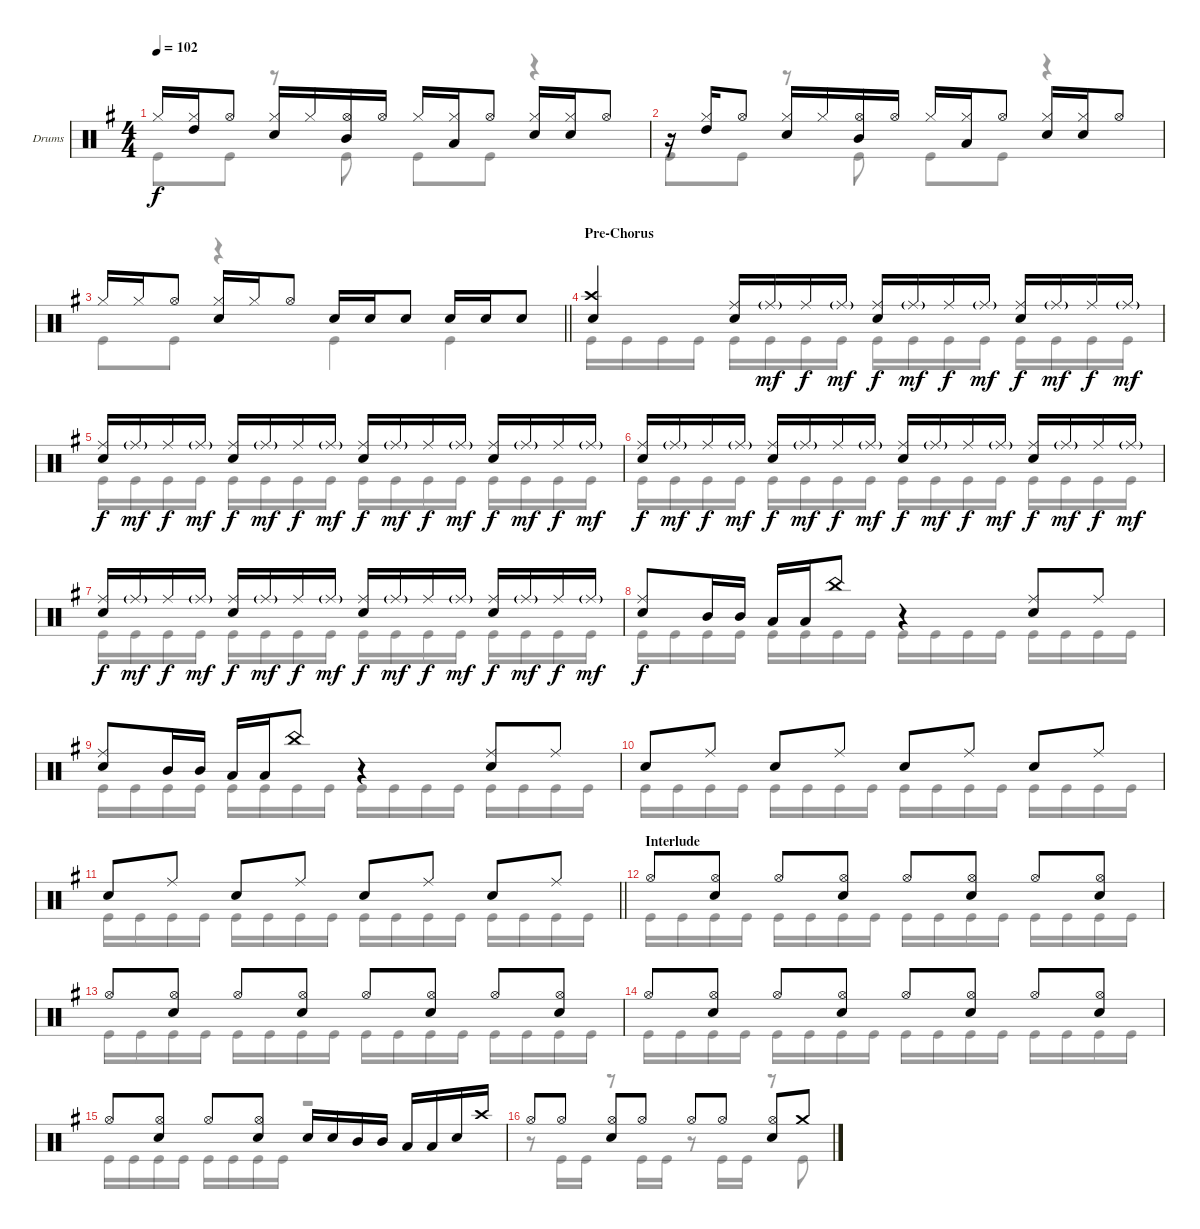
\bracketExtendMode groupsimilarinstruments
\firstSystemTrackNameOrientation horizontal
\otherSystemsTrackNameOrientation horizontal
\track ("Drumkit" "Drums") {instrument percussion}
\staff {score}
\articulation defaults
\voice
\ts (4 4)
\tempo 102
\clef neutral
\ks g "Hi-Hat (closed)".16{dy f}
("Hi-Hat (closed)" "High Tom (hit)").16 "Hi-Hat (open)".8 ("Hi-Hat (closed)" "Snare (hit) 2").16 "Hi-Hat (closed)".16 ("Hi-Hat (open)" "Mid Tom (hit)").16 "Hi-Hat (open)".16 "Hi-Hat (closed)".16 ("Hi-Hat (closed)" "Low Tom (hit)").16 "Hi-Hat (open)".8 ("Hi-Hat (closed)" "Snare (hit) 2").16 ("Hi-Hat (closed)" "Snare (hit) 2").16 "Hi-Hat (open)".8 |
r.16 ("Hi-Hat (closed)" "High Tom (hit)").16 "Hi-Hat (open)".8 ("Hi-Hat (closed)" "Snare (hit) 2").16 "Hi-Hat (closed)".16 ("Hi-Hat (open)" "Mid Tom (hit)").16 "Hi-Hat (open)".16 "Hi-Hat (closed)".16 ("Hi-Hat (closed)" "Low Tom (hit)").16 "Hi-Hat (open)".8 ("Hi-Hat (closed)" "Snare (hit) 2").16 ("Hi-Hat (closed)" "Snare (hit) 2").16 "Hi-Hat (open)".8 |
\barLineRight lightlight "Hi-Hat (closed)".16 "Hi-Hat (closed)".16 "Hi-Hat (open)".8
("Hi-Hat (closed)" "Snare (hit) 2").16 "Hi-Hat (closed)".16 "Hi-Hat (open)".8 "Snare (hit) 2".16 "Snare (hit) 2".16 "Snare (hit) 2".8 "Snare (hit) 2".16 "Snare (hit) 2".16 "Snare (hit) 2".8 |
\section ("" "Pre-Chorus")
("Crash high (hit)" "Snare (hit) 2").4 ("Ride (middle)" "Snare (hit) 2").16 "Ride (middle)"{g}.16{dy mf} "Ride (middle)".16{dy f} "Ride (middle)"{g}.16{dy mf} ("Ride (middle)" "Snare (hit) 2").16{dy f} "Ride (middle)"{g}.16{dy mf} "Ride (middle)".16{dy f} "Ride (middle)"{g}.16{dy mf} ("Ride (middle)" "Snare (hit) 2").16{dy f} "Ride (middle)"{g}.16{dy mf} "Ride (middle)".16{dy f} "Ride (middle)"{g}.16{dy mf} |
("Ride (middle)" "Snare (hit) 2").16{dy f} "Ride (middle)"{g}.16{dy mf} "Ride (middle)".16{dy f} "Ride (middle)"{g}.16{dy mf} ("Ride (middle)" "Snare (hit) 2").16{dy f} "Ride (middle)"{g}.16{dy mf} "Ride (middle)".16{dy f} "Ride (middle)"{g}.16{dy mf} ("Ride (middle)" "Snare (hit) 2").16{dy f} "Ride (middle)"{g}.16{dy mf} "Ride (middle)".16{dy f} "Ride (middle)"{g}.16{dy mf} ("Ride (middle)" "Snare (hit) 2").16{dy f} "Ride (middle)"{g}.16{dy mf} "Ride (middle)".16{dy f} "Ride (middle)"{g}.16{dy mf} |
("Ride (middle)" "Snare (hit) 2").16{dy f} "Ride (middle)"{g}.16{dy mf} "Ride (middle)".16{dy f} "Ride (middle)"{g}.16{dy mf} ("Ride (middle)" "Snare (hit) 2").16{dy f} "Ride (middle)"{g}.16{dy mf} "Ride (middle)".16{dy f} "Ride (middle)"{g}.16{dy mf} ("Ride (middle)" "Snare (hit) 2").16{dy f} "Ride (middle)"{g}.16{dy mf} "Ride (middle)".16{dy f} "Ride (middle)"{g}.16{dy mf} ("Ride (middle)" "Snare (hit) 2").16{dy f} "Ride (middle)"{g}.16{dy mf} "Ride (middle)".16{dy f} "Ride (middle)"{g}.16{dy mf} |
("Ride (middle)" "Snare (hit) 2").16{dy f} "Ride (middle)"{g}.16{dy mf} "Ride (middle)".16{dy f} "Ride (middle)"{g}.16{dy mf} ("Ride (middle)" "Snare (hit) 2").16{dy f} "Ride (middle)"{g}.16{dy mf} "Ride (middle)".16{dy f} "Ride (middle)"{g}.16{dy mf} ("Ride (middle)" "Snare (hit) 2").16{dy f} "Ride (middle)"{g}.16{dy mf} "Ride (middle)".16{dy f} "Ride (middle)"{g}.16{dy mf} ("Ride (middle)" "Snare (hit) 2").16{dy f} "Ride (middle)"{g}.16{dy mf} "Ride (middle)".16{dy f} "Ride (middle)"{g}.16{dy mf} |
("Ride (middle)" "Snare (hit) 2").8{dy f} "Mid Tom (hit)".16 "Mid Tom (hit)".16 "Low Tom (hit)".16 "Low Tom (hit)".16 "China (hit)".8 r.4 ("Ride (middle)" "Snare (hit) 2").8 "Ride (middle)".8 |
("Ride (middle)" "Snare (hit) 2").8 "Mid Tom (hit)".16 "Mid Tom (hit)".16 "Low Tom (hit)".16 "Low Tom (hit)".16 "China (hit)".8 r.4 ("Ride (middle)" "Snare (hit) 2").8 "Ride (middle)".8 |
"Snare (hit) 2".8 "Ride (middle)".8 "Snare (hit) 2".8 "Ride (middle)".8 "Snare (hit) 2".8 "Ride (middle)".8 "Snare (hit) 2".8 "Ride (middle)".8 |
\barLineRight lightlight "Snare (hit) 2".8 "Ride (middle)".8 "Snare (hit) 2".8 "Ride (middle)".8 "Snare (hit) 2".8 "Ride (middle)".8 "Snare (hit) 2".8 "Ride (middle)".8
|
\section ("" "Interlude")
"Hi-Hat (open)".8 ("Hi-Hat (open)" "Snare (hit) 2").8 "Hi-Hat (open)".8 ("Hi-Hat (open)" "Snare (hit) 2").8 "Hi-Hat (open)".8 ("Hi-Hat (open)" "Snare (hit) 2").8 "Hi-Hat (open)".8 ("Hi-Hat (open)" "Snare (hit) 2").8 |
"Hi-Hat (open)".8 ("Hi-Hat (open)" "Snare (hit) 2").8 "Hi-Hat (open)".8 ("Hi-Hat (open)" "Snare (hit) 2").8 "Hi-Hat (open)".8 ("Hi-Hat (open)" "Snare (hit) 2").8 "Hi-Hat (open)".8 ("Hi-Hat (open)" "Snare (hit) 2").8 |
"Hi-Hat (open)".8 ("Hi-Hat (open)" "Snare (hit) 2").8 "Hi-Hat (open)".8 ("Hi-Hat (open)" "Snare (hit) 2").8 "Hi-Hat (open)".8 ("Hi-Hat (open)" "Snare (hit) 2").8 "Hi-Hat (open)".8 ("Hi-Hat (open)" "Snare (hit) 2").8 |
"Hi-Hat (open)".8 ("Hi-Hat (open)" "Snare (hit) 2").8 "Hi-Hat (open)".8 ("Hi-Hat (open)" "Snare (hit) 2").8 "Snare (hit) 2".16 "Snare (hit) 2".16 "Mid Tom (hit)".16 "Mid Tom (hit)".16 "Low Tom (hit)".16 "Low Tom (hit)".16 "Snare (hit) 2".16 "Crash high (hit)".16 |
"Hi-Hat (open)".8 "Hi-Hat (open)".8 ("Hi-Hat (open)" "Snare (hit) 2").8 "Hi-Hat (open)".8 "Hi-Hat (open)".8 "Hi-Hat (open)".8 ("Hi-Hat (open)" "Snare (hit) 2").8 "Crash medium (hit)".8
\voice
\clef neutral
\ottava regular
\simile none
\ks g "Kick (hit)".8{dy f} "Kick (hit)".8
r.8 "Kick (hit)".8 "Kick (hit)".8 "Kick (hit)".8 r.4 |
"Kick (hit)".8 "Kick (hit)".8 r.8 "Kick (hit)".8 "Kick (hit)".8 "Kick (hit)".8 r.4 |
\barLineRight lightlight "Kick (hit)".8 "Kick (hit)".8
r.4 "Kick (hit)".4 "Kick (hit)".4 |
"Kick (hit)".16 "Kick (hit)".16 "Kick (hit)".16 "Kick (hit)".16 "Kick (hit)".16 "Kick (hit)".16 "Kick (hit)".16 "Kick (hit)".16 "Kick (hit)".16 "Kick (hit)".16 "Kick (hit)".16 "Kick (hit)".16 "Kick (hit)".16 "Kick (hit)".16 "Kick (hit)".16 "Kick (hit)".16 |
"Kick (hit)".16 "Kick (hit)".16 "Kick (hit)".16 "Kick (hit)".16 "Kick (hit)".16 "Kick (hit)".16 "Kick (hit)".16 "Kick (hit)".16 "Kick (hit)".16 "Kick (hit)".16 "Kick (hit)".16 "Kick (hit)".16 "Kick (hit)".16 "Kick (hit)".16 "Kick (hit)".16 "Kick (hit)".16 |
"Kick (hit)".16 "Kick (hit)".16 "Kick (hit)".16 "Kick (hit)".16 "Kick (hit)".16 "Kick (hit)".16 "Kick (hit)".16 "Kick (hit)".16 "Kick (hit)".16 "Kick (hit)".16 "Kick (hit)".16 "Kick (hit)".16 "Kick (hit)".16 "Kick (hit)".16 "Kick (hit)".16 "Kick (hit)".16 |
"Kick (hit)".16 "Kick (hit)".16 "Kick (hit)".16 "Kick (hit)".16 "Kick (hit)".16 "Kick (hit)".16 "Kick (hit)".16 "Kick (hit)".16 "Kick (hit)".16 "Kick (hit)".16 "Kick (hit)".16 "Kick (hit)".16 "Kick (hit)".16 "Kick (hit)".16 "Kick (hit)".16 "Kick (hit)".16 |
"Kick (hit)".16 "Kick (hit)".16 "Kick (hit)".16 "Kick (hit)".16 "Kick (hit)".16 "Kick (hit)".16 "Kick (hit)".16 "Kick (hit)".16 "Kick (hit)".16 "Kick (hit)".16 "Kick (hit)".16 "Kick (hit)".16 "Kick (hit)".16 "Kick (hit)".16 "Kick (hit)".16 "Kick (hit)".16 |
"Kick (hit)".16 "Kick (hit)".16 "Kick (hit)".16 "Kick (hit)".16 "Kick (hit)".16 "Kick (hit)".16 "Kick (hit)".16 "Kick (hit)".16 "Kick (hit)".16 "Kick (hit)".16 "Kick (hit)".16 "Kick (hit)".16 "Kick (hit)".16 "Kick (hit)".16 "Kick (hit)".16 "Kick (hit)".16 |
"Kick (hit)".16 "Kick (hit)".16 "Kick (hit)".16 "Kick (hit)".16 "Kick (hit)".16 "Kick (hit)".16 "Kick (hit)".16 "Kick (hit)".16 "Kick (hit)".16 "Kick (hit)".16 "Kick (hit)".16 "Kick (hit)".16 "Kick (hit)".16 "Kick (hit)".16 "Kick (hit)".16 "Kick (hit)".16 |
\barLineRight lightlight "Kick (hit)".16 "Kick (hit)".16 "Kick (hit)".16 "Kick (hit)".16 "Kick (hit)".16 "Kick (hit)".16 "Kick (hit)".16 "Kick (hit)".16 "Kick (hit)".16 "Kick (hit)".16 "Kick (hit)".16 "Kick (hit)".16 "Kick (hit)".16 "Kick (hit)".16 "Kick (hit)".16 "Kick (hit)".16
|
"Kick (hit)".16 "Kick (hit)".16 "Kick (hit)".16 "Kick (hit)".16 "Kick (hit)".16 "Kick (hit)".16 "Kick (hit)".16 "Kick (hit)".16 "Kick (hit)".16 "Kick (hit)".16 "Kick (hit)".16 "Kick (hit)".16 "Kick (hit)".16 "Kick (hit)".16 "Kick (hit)".16 "Kick (hit)".16 |
"Kick (hit)".16 "Kick (hit)".16 "Kick (hit)".16 "Kick (hit)".16 "Kick (hit)".16 "Kick (hit)".16 "Kick (hit)".16 "Kick (hit)".16 "Kick (hit)".16 "Kick (hit)".16 "Kick (hit)".16 "Kick (hit)".16 "Kick (hit)".16 "Kick (hit)".16 "Kick (hit)".16 "Kick (hit)".16 |
"Kick (hit)".16 "Kick (hit)".16 "Kick (hit)".16 "Kick (hit)".16 "Kick (hit)".16 "Kick (hit)".16 "Kick (hit)".16 "Kick (hit)".16 "Kick (hit)".16 "Kick (hit)".16 "Kick (hit)".16 "Kick (hit)".16 "Kick (hit)".16 "Kick (hit)".16 "Kick (hit)".16 "Kick (hit)".16 |
"Kick (hit)".16 "Kick (hit)".16 "Kick (hit)".16 "Kick (hit)".16 "Kick (hit)".16 "Kick (hit)".16 "Kick (hit)".16 "Kick (hit)".16 r.2 |
r.8 "Kick (hit)".16 "Kick (hit)".16 r.8 "Kick (hit)".16 "Kick (hit)".16 r.8 "Kick (hit)".16 "Kick (hit)".16 r.8 "Kick (hit)".8
